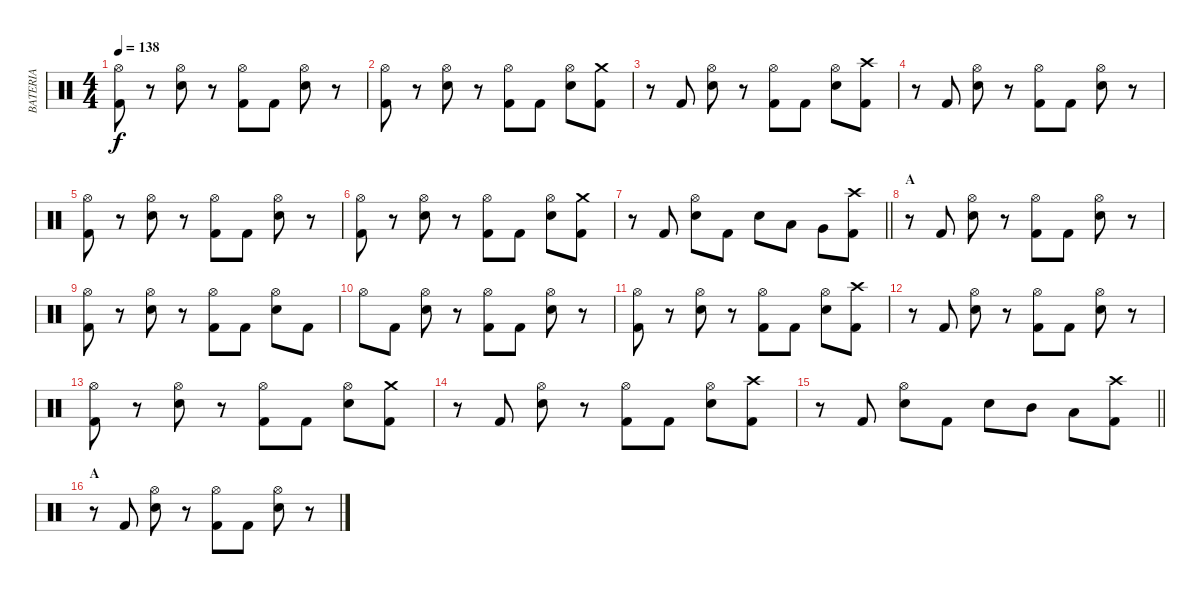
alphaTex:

\track ("BATERIA" "BATERIA") {instrument percussion}
\staff {score}
\articulation defaults
\ts (4 4)
\tempo 138
\clef neutral
\ks c
("Kick (hit) 2" "Hi-Hat (open)").8{dy f} r.8 ("Electric Snare (hit)" "Hi-Hat (open)").8 r.8 ("Kick (hit) 2" "Hi-Hat (open)").8 "Kick (hit) 2".8 ("Electric Snare (hit)" "Hi-Hat (open)").8 r.8 |
("Kick (hit) 2" "Hi-Hat (open)").8 r.8 ("Electric Snare (hit)" "Hi-Hat (open)").8 r.8 ("Kick (hit) 2" "Hi-Hat (open)").8 "Kick (hit) 2".8 ("Electric Snare (hit)" "Hi-Hat (open)").8 ("Kick (hit) 2" "Crash medium (hit)").8 |
r.8 "Kick (hit) 2".8 ("Electric Snare (hit)" "Hi-Hat (open)").8 r.8 ("Kick (hit) 2" "Hi-Hat (open)").8 "Kick (hit) 2".8 ("Electric Snare (hit)" "Hi-Hat (open)").8 ("Kick (hit) 2" "Crash high (hit)").8 |
r.8 "Kick (hit) 2".8 ("Electric Snare (hit)" "Hi-Hat (open)").8 r.8 ("Kick (hit) 2" "Hi-Hat (open)").8 "Kick (hit) 2".8 ("Electric Snare (hit)" "Hi-Hat (open)").8 r.8 |
("Kick (hit) 2" "Hi-Hat (open)").8 r.8 ("Electric Snare (hit)" "Hi-Hat (open)").8 r.8 ("Kick (hit) 2" "Hi-Hat (open)").8 "Kick (hit) 2".8 ("Electric Snare (hit)" "Hi-Hat (open)").8 r.8 |
("Kick (hit) 2" "Hi-Hat (open)").8 r.8 ("Electric Snare (hit)" "Hi-Hat (open)").8 r.8 ("Kick (hit) 2" "Hi-Hat (open)").8 "Kick (hit) 2".8 ("Electric Snare (hit)" "Hi-Hat (open)").8 ("Kick (hit) 2" "Crash medium (hit)").8 |
\barLineRight lightlight
r.8 "Kick (hit) 2".8 ("Electric Snare (hit)" "Hi-Hat (open)").8 "Kick (hit) 2".8 "Electric Snare (hit)".8 "Low Tom (hit)".8 "Very Low Tom (hit)".8 ("Kick (hit) 2" "Crash high (hit)").8 |
\section ("" "A")
r.8 "Kick (hit) 2".8 ("Electric Snare (hit)" "Hi-Hat (open)").8 r.8 ("Kick (hit) 2" "Hi-Hat (open)").8 "Kick (hit) 2".8 ("Electric Snare (hit)" "Hi-Hat (open)").8 r.8 |
("Kick (hit) 2" "Hi-Hat (open)").8 r.8 ("Electric Snare (hit)" "Hi-Hat (open)").8 r.8 ("Kick (hit) 2" "Hi-Hat (open)").8 "Kick (hit) 2".8 ("Electric Snare (hit)" "Hi-Hat (open)").8 "Kick (hit) 2".8 |
"Hi-Hat (open)".8 "Kick (hit) 2".8 ("Electric Snare (hit)" "Hi-Hat (open)").8 r.8 ("Kick (hit) 2" "Hi-Hat (open)").8 "Kick (hit) 2".8 ("Electric Snare (hit)" "Hi-Hat (open)").8 r.8 |
("Kick (hit) 2" "Hi-Hat (open)").8 r.8 ("Electric Snare (hit)" "Hi-Hat (open)").8 r.8 ("Kick (hit) 2" "Hi-Hat (open)").8 "Kick (hit) 2".8 ("Electric Snare (hit)" "Hi-Hat (open)").8 ("Kick (hit) 2" "Crash high (hit)").8 |
r.8 "Kick (hit) 2".8 ("Electric Snare (hit)" "Hi-Hat (open)").8 r.8 ("Kick (hit) 2" "Hi-Hat (open)").8 "Kick (hit) 2".8 ("Electric Snare (hit)" "Hi-Hat (open)").8 r.8 |
("Kick (hit) 2" "Hi-Hat (open)").8 r.8 ("Electric Snare (hit)" "Hi-Hat (open)").8 r.8 ("Kick (hit) 2" "Hi-Hat (open)").8 "Kick (hit) 2".8 ("Electric Snare (hit)" "Hi-Hat (open)").8 ("Kick (hit) 2" "Crash medium (hit)").8 |
r.8 "Kick (hit) 2".8 ("Electric Snare (hit)" "Hi-Hat (open)").8 r.8 ("Kick (hit) 2" "Hi-Hat (open)").8 "Kick (hit) 2".8 ("Electric Snare (hit)" "Hi-Hat (open)").8 ("Kick (hit) 2" "Crash high (hit)").8 |
\barLineRight lightlight
r.8 "Kick (hit) 2".8 ("Electric Snare (hit)" "Hi-Hat (open)").8 "Kick (hit) 2".8 "Electric Snare (hit)".8 "Mid Tom (hit)".8 "Low Tom (hit)".8 ("Kick (hit) 2" "Crash high (hit)").8 |
\section ("" "A")
r.8 "Kick (hit) 2".8 ("Electric Snare (hit)" "Hi-Hat (open)").8 r.8 ("Kick (hit) 2" "Hi-Hat (open)").8 "Kick (hit) 2".8 ("Electric Snare (hit)" "Hi-Hat (open)").8 r.8
